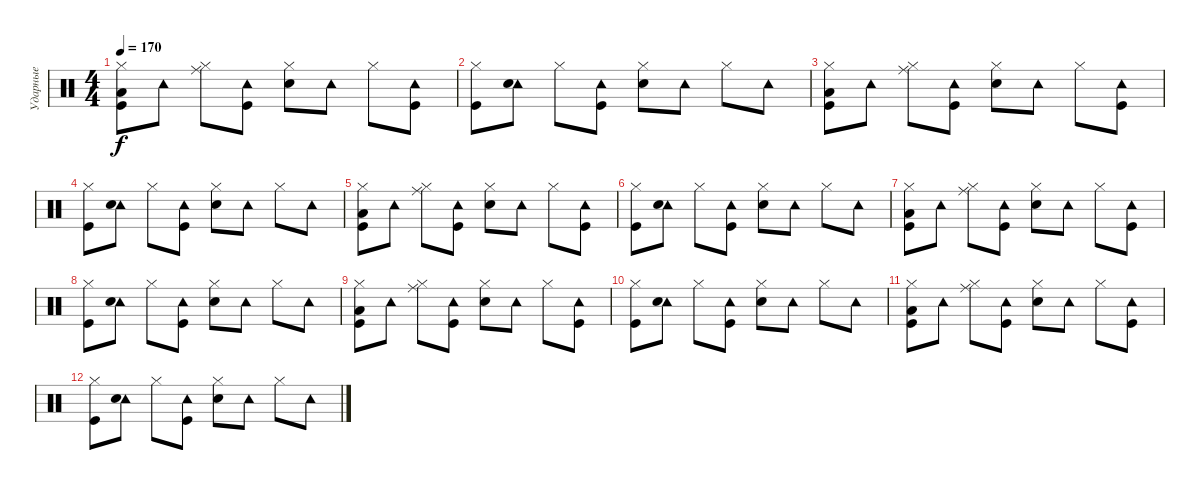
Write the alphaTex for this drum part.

\track ("Ударные" "Ударные") {instrument percussion}
\staff {score}
\articulation defaults
\ts (4 4)
\tempo 170
\clef neutral
\ks c
("Hi-Hat (closed)" "Kick (hit)" "Low Floor Tom (hit)").8{dy f volume 8 balance 16} "Tambourine (hit)".8 ("Hi-Hat (closed)" "Ride (middle)").8 ("Tambourine (hit)" "Kick (hit)").8 ("Hi-Hat (closed)" "Electric Snare (hit)").8 "Tambourine (hit)".8 "Hi-Hat (closed)".8 ("Tambourine (hit)" "Kick (hit)").8 |
("Hi-Hat (closed)" "Kick (hit)").8{volume 8 balance 8} ("Tambourine (hit)" "Electric Snare (hit)").8 "Hi-Hat (closed)".8 ("Tambourine (hit)" "Kick (hit)").8 ("Hi-Hat (closed)" "Electric Snare (hit)").8 "Tambourine (hit)".8 "Hi-Hat (closed)".8 "Tambourine (hit)".8 |
("Hi-Hat (closed)" "Kick (hit)" "Low Floor Tom (hit)").8{volume 8 balance 0} "Tambourine (hit)".8 ("Hi-Hat (closed)" "Ride (middle)").8 ("Tambourine (hit)" "Kick (hit)").8 ("Hi-Hat (closed)" "Electric Snare (hit)").8 "Tambourine (hit)".8 "Hi-Hat (closed)".8 ("Tambourine (hit)" "Kick (hit)").8 |
("Hi-Hat (closed)" "Kick (hit)").8{volume 8 balance 8} ("Tambourine (hit)" "Electric Snare (hit)").8 "Hi-Hat (closed)".8 ("Tambourine (hit)" "Kick (hit)").8 ("Hi-Hat (closed)" "Electric Snare (hit)").8 "Tambourine (hit)".8 "Hi-Hat (closed)".8 "Tambourine (hit)".8 |
("Hi-Hat (closed)" "Kick (hit)" "Low Floor Tom (hit)").8{volume 8 balance 16} "Tambourine (hit)".8 ("Hi-Hat (closed)" "Ride (middle)").8 ("Tambourine (hit)" "Kick (hit)").8 ("Hi-Hat (closed)" "Electric Snare (hit)").8 "Tambourine (hit)".8 "Hi-Hat (closed)".8 ("Tambourine (hit)" "Kick (hit)").8 |
("Hi-Hat (closed)" "Kick (hit)").8{volume 8 balance 8} ("Tambourine (hit)" "Electric Snare (hit)").8 "Hi-Hat (closed)".8 ("Tambourine (hit)" "Kick (hit)").8 ("Hi-Hat (closed)" "Electric Snare (hit)").8 "Tambourine (hit)".8 "Hi-Hat (closed)".8 "Tambourine (hit)".8 |
("Hi-Hat (closed)" "Kick (hit)" "Low Floor Tom (hit)").8{volume 8 balance 0} "Tambourine (hit)".8 ("Hi-Hat (closed)" "Ride (middle)").8 ("Tambourine (hit)" "Kick (hit)").8 ("Hi-Hat (closed)" "Electric Snare (hit)").8 "Tambourine (hit)".8 "Hi-Hat (closed)".8 ("Tambourine (hit)" "Kick (hit)").8 |
("Hi-Hat (closed)" "Kick (hit)").8{volume 8 balance 8} ("Tambourine (hit)" "Electric Snare (hit)").8 "Hi-Hat (closed)".8 ("Tambourine (hit)" "Kick (hit)").8 ("Hi-Hat (closed)" "Electric Snare (hit)").8 "Tambourine (hit)".8 "Hi-Hat (closed)".8 "Tambourine (hit)".8 |
("Hi-Hat (closed)" "Kick (hit)" "Low Floor Tom (hit)").8{volume 8 balance 16} "Tambourine (hit)".8 ("Hi-Hat (closed)" "Ride (middle)").8 ("Tambourine (hit)" "Kick (hit)").8 ("Hi-Hat (closed)" "Electric Snare (hit)").8 "Tambourine (hit)".8 "Hi-Hat (closed)".8 ("Tambourine (hit)" "Kick (hit)").8 |
("Hi-Hat (closed)" "Kick (hit)").8{volume 8 balance 8} ("Tambourine (hit)" "Electric Snare (hit)").8 "Hi-Hat (closed)".8 ("Tambourine (hit)" "Kick (hit)").8 ("Hi-Hat (closed)" "Electric Snare (hit)").8 "Tambourine (hit)".8 "Hi-Hat (closed)".8 "Tambourine (hit)".8 |
("Hi-Hat (closed)" "Kick (hit)" "Low Floor Tom (hit)").8{volume 8 balance 0} "Tambourine (hit)".8 ("Hi-Hat (closed)" "Ride (middle)").8 ("Tambourine (hit)" "Kick (hit)").8 ("Hi-Hat (closed)" "Electric Snare (hit)").8 "Tambourine (hit)".8 "Hi-Hat (closed)".8 ("Tambourine (hit)" "Kick (hit)").8 |
("Hi-Hat (closed)" "Kick (hit)").8{volume 8 balance 8} ("Tambourine (hit)" "Electric Snare (hit)").8 "Hi-Hat (closed)".8 ("Tambourine (hit)" "Kick (hit)").8 ("Hi-Hat (closed)" "Electric Snare (hit)").8 "Tambourine (hit)".8 "Hi-Hat (closed)".8 "Tambourine (hit)".8
